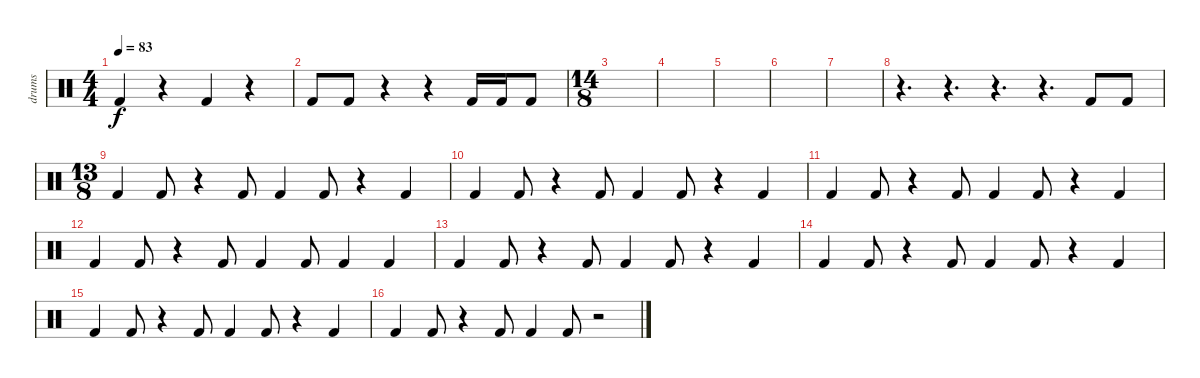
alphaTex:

\track ("drums" "drums") {instrument percussion}
\staff {score}
\articulation defaults
\ts (4 4)
\tempo 83
\clef neutral
\ks c "Kick (hit) 2".4{dy f}
r.4 "Kick (hit) 2".4 r.4 |
"Kick (hit) 2".8 "Kick (hit) 2".8 r.4 r.4 "Kick (hit) 2".16 "Kick (hit) 2".16 "Kick (hit) 2".8 |
\ts (14 8)
|
|
|
|
|
r.4{d} r.4{d} r.4{d} r.4{d} "Kick (hit) 2".8 "Kick (hit) 2".8 |
\ts (13 8)
"Kick (hit) 2".4 "Kick (hit) 2".8 r.4 "Kick (hit) 2".8 "Kick (hit) 2".4 "Kick (hit) 2".8 r.4 "Kick (hit) 2".4 |
"Kick (hit) 2".4 "Kick (hit) 2".8 r.4 "Kick (hit) 2".8 "Kick (hit) 2".4 "Kick (hit) 2".8 r.4 "Kick (hit) 2".4 |
"Kick (hit) 2".4 "Kick (hit) 2".8 r.4 "Kick (hit) 2".8 "Kick (hit) 2".4 "Kick (hit) 2".8 r.4 "Kick (hit) 2".4 |
"Kick (hit) 2".4 "Kick (hit) 2".8 r.4 "Kick (hit) 2".8 "Kick (hit) 2".4 "Kick (hit) 2".8 "Kick (hit) 2".4 "Kick (hit) 2".4 |
"Kick (hit) 2".4 "Kick (hit) 2".8 r.4 "Kick (hit) 2".8 "Kick (hit) 2".4 "Kick (hit) 2".8 r.4 "Kick (hit) 2".4 |
"Kick (hit) 2".4 "Kick (hit) 2".8 r.4 "Kick (hit) 2".8 "Kick (hit) 2".4 "Kick (hit) 2".8 r.4 "Kick (hit) 2".4 |
"Kick (hit) 2".4 "Kick (hit) 2".8 r.4 "Kick (hit) 2".8 "Kick (hit) 2".4 "Kick (hit) 2".8 r.4 "Kick (hit) 2".4 |
"Kick (hit) 2".4 "Kick (hit) 2".8 r.4 "Kick (hit) 2".8 "Kick (hit) 2".4 "Kick (hit) 2".8 r.2
